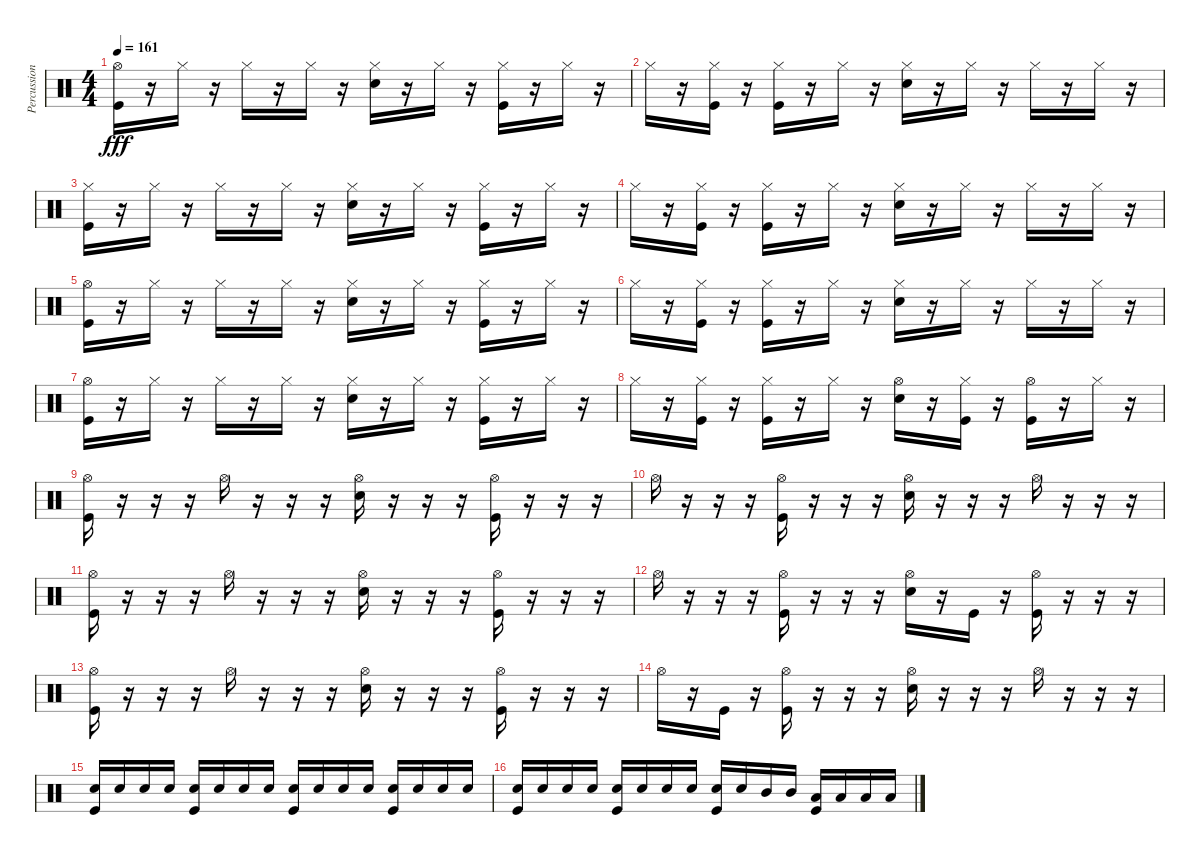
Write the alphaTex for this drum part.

\track ("Percussion" "Percussion") {instrument percussion}
\staff {score}
\articulation defaults
\ts (4 4)
\tempo 161
\clef neutral
\ks c
("Hi-Hat (open)" "Kick (hit)").16{dy fff} r.16 "Hi-Hat (closed)".16 r.16 "Hi-Hat (closed)".16 r.16 "Hi-Hat (closed)".16 r.16 ("Hi-Hat (closed)" "Electric Snare (hit)").16 r.16 "Hi-Hat (closed)".16 r.16 ("Hi-Hat (closed)" "Kick (hit)").16 r.16 "Hi-Hat (closed)".16 r.16 |
"Hi-Hat (closed)".16 r.16 ("Hi-Hat (closed)" "Kick (hit)").16 r.16 ("Hi-Hat (closed)" "Kick (hit)").16 r.16 "Hi-Hat (closed)".16 r.16 ("Hi-Hat (closed)" "Electric Snare (hit)").16 r.16 "Hi-Hat (closed)".16 r.16 "Hi-Hat (closed)".16 r.16 "Hi-Hat (closed)".16 r.16 |
("Hi-Hat (closed)" "Kick (hit)").16 r.16 "Hi-Hat (closed)".16 r.16 "Hi-Hat (closed)".16 r.16 "Hi-Hat (closed)".16 r.16 ("Hi-Hat (closed)" "Electric Snare (hit)").16 r.16 "Hi-Hat (closed)".16 r.16 ("Hi-Hat (closed)" "Kick (hit)").16 r.16 "Hi-Hat (closed)".16 r.16 |
"Hi-Hat (closed)".16 r.16 ("Hi-Hat (closed)" "Kick (hit)").16 r.16 ("Hi-Hat (closed)" "Kick (hit)").16 r.16 "Hi-Hat (closed)".16 r.16 ("Hi-Hat (closed)" "Electric Snare (hit)").16 r.16 "Hi-Hat (closed)".16 r.16 "Hi-Hat (closed)".16 r.16 "Hi-Hat (closed)".16 r.16 |
("Hi-Hat (open)" "Kick (hit)").16 r.16 "Hi-Hat (closed)".16 r.16 "Hi-Hat (closed)".16 r.16 "Hi-Hat (closed)".16 r.16 ("Hi-Hat (closed)" "Electric Snare (hit)").16 r.16 "Hi-Hat (closed)".16 r.16 ("Hi-Hat (closed)" "Kick (hit)").16 r.16 "Hi-Hat (closed)".16 r.16 |
"Hi-Hat (closed)".16 r.16 ("Hi-Hat (closed)" "Kick (hit)").16 r.16 ("Hi-Hat (closed)" "Kick (hit)").16 r.16 "Hi-Hat (closed)".16 r.16 ("Hi-Hat (closed)" "Electric Snare (hit)").16 r.16 "Hi-Hat (closed)".16 r.16 "Hi-Hat (closed)".16 r.16 "Hi-Hat (closed)".16 r.16 |
("Hi-Hat (open)" "Kick (hit)").16 r.16 "Hi-Hat (closed)".16 r.16 "Hi-Hat (closed)".16 r.16 "Hi-Hat (closed)".16 r.16 ("Hi-Hat (closed)" "Electric Snare (hit)").16 r.16 "Hi-Hat (closed)".16 r.16 ("Hi-Hat (closed)" "Kick (hit)").16 r.16 "Hi-Hat (closed)".16 r.16 |
"Hi-Hat (closed)".16 r.16 ("Hi-Hat (closed)" "Kick (hit)").16 r.16 ("Hi-Hat (closed)" "Kick (hit)").16 r.16 "Hi-Hat (closed)".16 r.16 ("Hi-Hat (open)" "Electric Snare (hit)").16 r.16 ("Hi-Hat (closed)" "Kick (hit)").16 r.16 ("Hi-Hat (open)" "Kick (hit)").16 r.16 "Hi-Hat (closed)".16 r.16 |
("Hi-Hat (open)" "Kick (hit)").16 r.16 r.16 r.16 "Hi-Hat (open)".16 r.16 r.16 r.16 ("Hi-Hat (open)" "Electric Snare (hit)").16 r.16 r.16 r.16 ("Hi-Hat (open)" "Kick (hit)").16 r.16 r.16 r.16 |
"Hi-Hat (open)".16 r.16 r.16 r.16 ("Hi-Hat (open)" "Kick (hit)").16 r.16 r.16 r.16 ("Hi-Hat (open)" "Electric Snare (hit)").16 r.16 r.16 r.16 "Hi-Hat (open)".16 r.16 r.16 r.16 |
("Hi-Hat (open)" "Kick (hit)").16 r.16 r.16 r.16 "Hi-Hat (open)".16 r.16 r.16 r.16 ("Hi-Hat (open)" "Electric Snare (hit)").16 r.16 r.16 r.16 ("Hi-Hat (open)" "Kick (hit)").16 r.16 r.16 r.16 |
"Hi-Hat (open)".16 r.16 r.16 r.16 ("Hi-Hat (open)" "Kick (hit)").16 r.16 r.16 r.16 ("Hi-Hat (open)" "Electric Snare (hit)").16 r.16 "Kick (hit)".16 r.16 ("Hi-Hat (open)" "Kick (hit)").16 r.16 r.16 r.16 |
("Hi-Hat (open)" "Kick (hit)").16 r.16 r.16 r.16 "Hi-Hat (open)".16 r.16 r.16 r.16 ("Hi-Hat (open)" "Electric Snare (hit)").16 r.16 r.16 r.16 ("Hi-Hat (open)" "Kick (hit)").16 r.16 r.16 r.16 |
"Hi-Hat (open)".16 r.16 "Kick (hit)".16 r.16 ("Hi-Hat (open)" "Kick (hit)").16 r.16 r.16 r.16 ("Hi-Hat (open)" "Electric Snare (hit)").16 r.16 r.16 r.16 "Hi-Hat (open)".16 r.16 r.16 r.16 |
("Electric Snare (hit)" "Kick (hit)").16 "Electric Snare (hit)".16 "Electric Snare (hit)".16 "Electric Snare (hit)".16 ("Electric Snare (hit)" "Kick (hit)").16 "Electric Snare (hit)".16 "Electric Snare (hit)".16 "Electric Snare (hit)".16 ("Electric Snare (hit)" "Kick (hit)").16 "Electric Snare (hit)".16 "Electric Snare (hit)".16 "Electric Snare (hit)".16 ("Electric Snare (hit)" "Kick (hit)").16 "Electric Snare (hit)".16 "Electric Snare (hit)".16 "Electric Snare (hit)".16 |
("Electric Snare (hit)" "Kick (hit)").16 "Electric Snare (hit)".16 "Electric Snare (hit)".16 "Electric Snare (hit)".16 ("Electric Snare (hit)" "Kick (hit)").16 "Electric Snare (hit)".16 "Electric Snare (hit)".16 "Electric Snare (hit)".16 ("Electric Snare (hit)" "Kick (hit)").16 "Electric Snare (hit)".16 "Mid Tom (hit)".16 "Mid Tom (hit)".16 ("Low Tom (hit)" "Kick (hit)").16 "Low Tom (hit)".16 "Low Tom (hit)".16 "Low Tom (hit)".16
